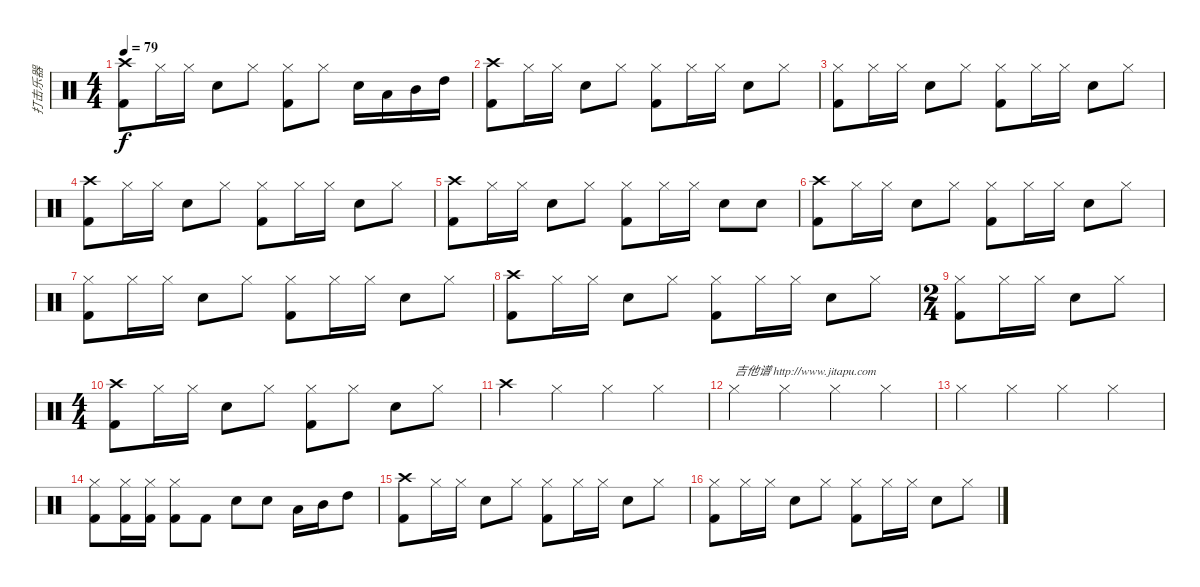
\track ("打击乐器" "打击乐器") {instrument percussion}
\staff {score}
\articulation defaults
\ts (4 4)
\tempo 79
\clef neutral
\ks c
("Crash high (hit)" "Kick (hit) 2").8{dy f} "Hi-Hat (closed)".16 "Hi-Hat (closed)".16 "Electric Snare (hit)".8 "Hi-Hat (closed)".8 ("Hi-Hat (closed)" "Kick (hit) 2").8 "Hi-Hat (closed)".8 "Electric Snare (hit)".16 "Low Tom (hit)".16 "Mid Tom (hit)".16 "High Tom (hit)".16 |
("Crash high (hit)" "Kick (hit) 2").8 "Hi-Hat (closed)".16 "Hi-Hat (closed)".16 "Electric Snare (hit)".8 "Hi-Hat (closed)".8 ("Hi-Hat (closed)" "Kick (hit) 2").8 "Hi-Hat (closed)".16 "Hi-Hat (closed)".16 "Electric Snare (hit)".8 "Hi-Hat (closed)".8 |
("Hi-Hat (closed)" "Kick (hit) 2").8 "Hi-Hat (closed)".16 "Hi-Hat (closed)".16 "Electric Snare (hit)".8 "Hi-Hat (closed)".8 ("Hi-Hat (closed)" "Kick (hit) 2").8 "Hi-Hat (closed)".16 "Hi-Hat (closed)".16 "Electric Snare (hit)".8 "Hi-Hat (closed)".8 |
("Crash high (hit)" "Kick (hit) 2").8 "Hi-Hat (closed)".16 "Hi-Hat (closed)".16 "Electric Snare (hit)".8 "Hi-Hat (closed)".8 ("Hi-Hat (closed)" "Kick (hit) 2").8 "Hi-Hat (closed)".16 "Hi-Hat (closed)".16 "Electric Snare (hit)".8 "Hi-Hat (closed)".8 |
("Crash high (hit)" "Kick (hit) 2").8 "Hi-Hat (closed)".16 "Hi-Hat (closed)".16 "Electric Snare (hit)".8 "Hi-Hat (closed)".8 ("Hi-Hat (closed)" "Kick (hit) 2").8 "Hi-Hat (closed)".16 "Hi-Hat (closed)".16 "Electric Snare (hit)".8 "Electric Snare (hit)".8 |
("Crash high (hit)" "Kick (hit) 2").8 "Hi-Hat (closed)".16 "Hi-Hat (closed)".16 "Electric Snare (hit)".8 "Hi-Hat (closed)".8 ("Hi-Hat (closed)" "Kick (hit) 2").8 "Hi-Hat (closed)".16 "Hi-Hat (closed)".16 "Electric Snare (hit)".8 "Hi-Hat (closed)".8 |
("Hi-Hat (closed)" "Kick (hit) 2").8 "Hi-Hat (closed)".16 "Hi-Hat (closed)".16 "Electric Snare (hit)".8 "Hi-Hat (closed)".8 ("Hi-Hat (closed)" "Kick (hit) 2").8 "Hi-Hat (closed)".16 "Hi-Hat (closed)".16 "Electric Snare (hit)".8 "Hi-Hat (closed)".8 |
("Crash high (hit)" "Kick (hit) 2").8 "Hi-Hat (closed)".16 "Hi-Hat (closed)".16 "Electric Snare (hit)".8 "Hi-Hat (closed)".8 ("Hi-Hat (closed)" "Kick (hit) 2").8 "Hi-Hat (closed)".16 "Hi-Hat (closed)".16 "Electric Snare (hit)".8 "Hi-Hat (closed)".8 |
\ts (2 4)
("Hi-Hat (closed)" "Kick (hit) 2").8 "Hi-Hat (closed)".16 "Hi-Hat (closed)".16 "Electric Snare (hit)".8 "Hi-Hat (closed)".8 |
\ts (4 4)
("Crash high (hit)" "Kick (hit) 2").8 "Hi-Hat (closed)".16 "Hi-Hat (closed)".16 "Electric Snare (hit)".8 "Hi-Hat (closed)".8 ("Hi-Hat (closed)" "Kick (hit) 2").8 "Hi-Hat (closed)".8 "Electric Snare (hit)".8 "Hi-Hat (closed)".8 |
"Crash high (hit)".4 "Hi-Hat (closed)".4 "Hi-Hat (closed)".4 "Hi-Hat (closed)".4 |
"Hi-Hat (closed)".4{txt "吉他谱 http://www.jitapu.com"} "Hi-Hat (closed)".4 "Hi-Hat (closed)".4 "Hi-Hat (closed)".4 |
"Hi-Hat (closed)".4 "Hi-Hat (closed)".4 "Hi-Hat (closed)".4 "Hi-Hat (closed)".4 |
("Hi-Hat (closed)" "Kick (hit) 2").8 ("Hi-Hat (closed)" "Kick (hit) 2").16 ("Hi-Hat (closed)" "Kick (hit) 2").16 ("Hi-Hat (closed)" "Kick (hit) 2").8 "Kick (hit) 2".8 "Electric Snare (hit)".8 "Electric Snare (hit)".8 "Low Tom (hit)".16 "Mid Tom (hit)".16 "High Tom (hit)".8 |
("Crash high (hit)" "Kick (hit) 2").8 "Hi-Hat (closed)".16 "Hi-Hat (closed)".16 "Electric Snare (hit)".8 "Hi-Hat (closed)".8 ("Hi-Hat (closed)" "Kick (hit) 2").8 "Hi-Hat (closed)".16 "Hi-Hat (closed)".16 "Electric Snare (hit)".8 "Hi-Hat (closed)".8 |
("Hi-Hat (closed)" "Kick (hit) 2").8 "Hi-Hat (closed)".16 "Hi-Hat (closed)".16 "Electric Snare (hit)".8 "Hi-Hat (closed)".8 ("Hi-Hat (closed)" "Kick (hit) 2").8 "Hi-Hat (closed)".16 "Hi-Hat (closed)".16 "Electric Snare (hit)".8 "Hi-Hat (closed)".8
